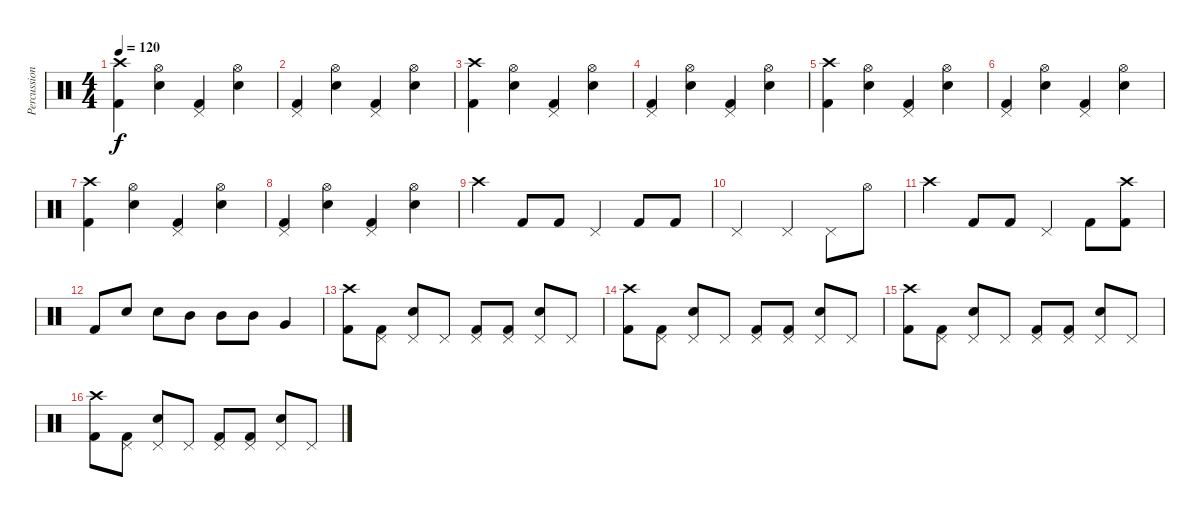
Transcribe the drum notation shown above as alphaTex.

\track ("Percussions" "Percussion") {instrument percussion}
\staff {score}
\articulation defaults
\ts (4 4)
\tempo 120
\clef neutral
\ks c
("Crash high (hit)" "Kick (hit) 2").4{dy f} ("Hi-Hat (open)" "Snare (hit) 2").4 ("Pedal Hi-Hat (hit)" "Kick (hit) 2").4 ("Hi-Hat (open)" "Snare (hit) 2").4 |
("Pedal Hi-Hat (hit)" "Kick (hit) 2").4 ("Hi-Hat (open)" "Snare (hit) 2").4 ("Pedal Hi-Hat (hit)" "Kick (hit) 2").4 ("Hi-Hat (open)" "Snare (hit) 2").4 |
("Crash high (hit)" "Kick (hit) 2").4 ("Hi-Hat (open)" "Snare (hit) 2").4 ("Pedal Hi-Hat (hit)" "Kick (hit) 2").4 ("Hi-Hat (open)" "Snare (hit) 2").4 |
("Pedal Hi-Hat (hit)" "Kick (hit) 2").4 ("Hi-Hat (open)" "Snare (hit) 2").4 ("Pedal Hi-Hat (hit)" "Kick (hit) 2").4 ("Hi-Hat (open)" "Snare (hit) 2").4 |
("Crash high (hit)" "Kick (hit) 2").4 ("Hi-Hat (open)" "Snare (hit) 2").4 ("Pedal Hi-Hat (hit)" "Kick (hit) 2").4 ("Hi-Hat (open)" "Snare (hit) 2").4 |
("Pedal Hi-Hat (hit)" "Kick (hit) 2").4 ("Hi-Hat (open)" "Snare (hit) 2").4 ("Pedal Hi-Hat (hit)" "Kick (hit) 2").4 ("Hi-Hat (open)" "Snare (hit) 2").4 |
("Crash high (hit)" "Kick (hit) 2").4 ("Hi-Hat (open)" "Snare (hit) 2").4 ("Pedal Hi-Hat (hit)" "Kick (hit) 2").4 ("Hi-Hat (open)" "Snare (hit) 2").4 |
("Pedal Hi-Hat (hit)" "Kick (hit) 2").4 ("Hi-Hat (open)" "Snare (hit) 2").4 ("Pedal Hi-Hat (hit)" "Kick (hit) 2").4 ("Hi-Hat (open)" "Snare (hit) 2").4 |
"Crash high (hit)".4 "Kick (hit) 2".8 "Kick (hit) 2".8 "Pedal Hi-Hat (hit)".4 "Kick (hit) 2".8 "Kick (hit) 2".8 |
"Pedal Hi-Hat (hit)".2 "Pedal Hi-Hat (hit)".4 "Pedal Hi-Hat (hit)".8 "Hi-Hat (open)".8 |
"Crash high (hit)".4 "Kick (hit) 2".8 "Kick (hit) 2".8 "Pedal Hi-Hat (hit)".4 "Kick (hit) 2".8 ("Crash high (hit)" "Kick (hit) 2").8 |
"Kick (hit) 2".8 "Snare (hit) 2".8 "Snare (hit) 2".8 "Mid Tom (hit)".8 "Mid Tom (hit)".8 "Mid Tom (hit)".8 "Very Low Tom (hit)".4 |
("Crash high (hit)" "Kick (hit) 2").8 ("Pedal Hi-Hat (hit)" "Kick (hit) 2").8 ("Pedal Hi-Hat (hit)" "Snare (hit) 2").8 "Pedal Hi-Hat (hit)".8 ("Pedal Hi-Hat (hit)" "Kick (hit) 2").8 ("Pedal Hi-Hat (hit)" "Kick (hit) 2").8 ("Pedal Hi-Hat (hit)" "Snare (hit) 2").8 "Pedal Hi-Hat (hit)".8 |
("Crash high (hit)" "Kick (hit) 2").8 ("Pedal Hi-Hat (hit)" "Kick (hit) 2").8 ("Pedal Hi-Hat (hit)" "Snare (hit) 2").8 "Pedal Hi-Hat (hit)".8 ("Pedal Hi-Hat (hit)" "Kick (hit) 2").8 ("Pedal Hi-Hat (hit)" "Kick (hit) 2").8 ("Pedal Hi-Hat (hit)" "Snare (hit) 2").8 "Pedal Hi-Hat (hit)".8 |
("Crash high (hit)" "Kick (hit) 2").8 ("Pedal Hi-Hat (hit)" "Kick (hit) 2").8 ("Pedal Hi-Hat (hit)" "Snare (hit) 2").8 "Pedal Hi-Hat (hit)".8 ("Pedal Hi-Hat (hit)" "Kick (hit) 2").8 ("Pedal Hi-Hat (hit)" "Kick (hit) 2").8 ("Pedal Hi-Hat (hit)" "Snare (hit) 2").8 "Pedal Hi-Hat (hit)".8 |
("Crash high (hit)" "Kick (hit) 2").8 ("Pedal Hi-Hat (hit)" "Kick (hit) 2").8 ("Pedal Hi-Hat (hit)" "Snare (hit) 2").8 "Pedal Hi-Hat (hit)".8 ("Pedal Hi-Hat (hit)" "Kick (hit) 2").8 ("Pedal Hi-Hat (hit)" "Kick (hit) 2").8 ("Pedal Hi-Hat (hit)" "Snare (hit) 2").8 "Pedal Hi-Hat (hit)".8
